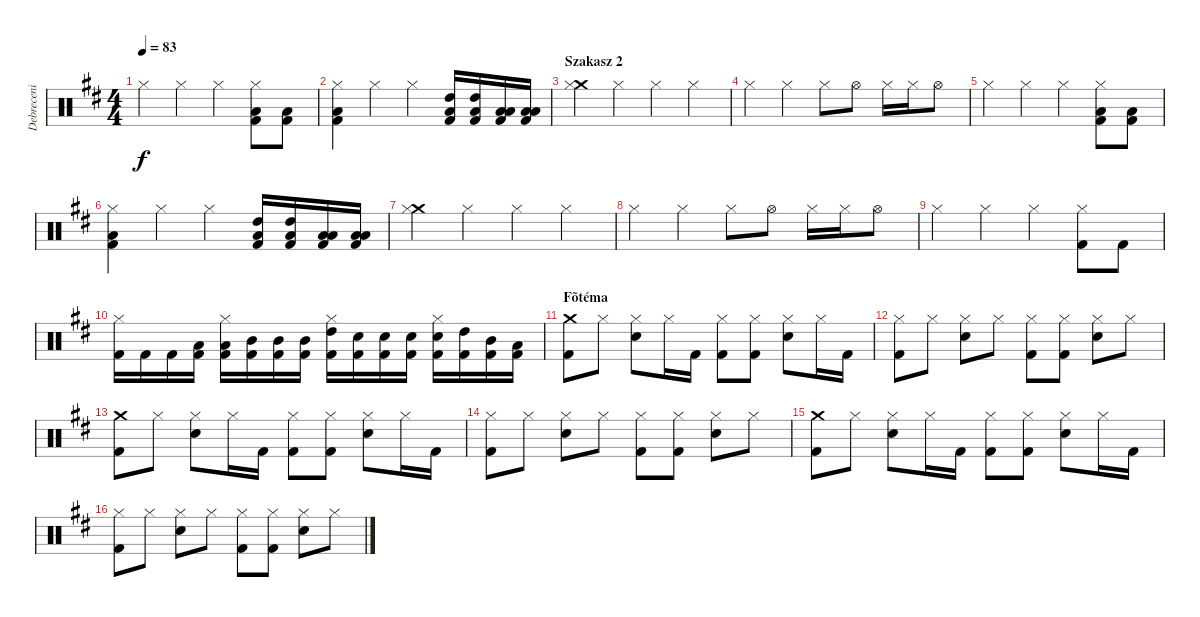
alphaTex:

\track ("Debreceni Ferenc \"Ciki\" Dob" "Debreceni ") {instrument percussion}
\staff {score}
\articulation defaults
\ts (4 4)
\tempo 83
\clef neutral
\ks d "Hi-Hat (closed)".4{dy f} "Hi-Hat (closed)".4 "Hi-Hat (closed)".4
("Hi-Hat (closed)" "Low Tom (hit)" "Kick (hit) 2").8 ("Low Tom (hit)" "Kick (hit) 2").8 |
("Hi-Hat (closed)" "Low Tom (hit)" "Kick (hit) 2").4 "Hi-Hat (closed)".4 "Hi-Hat (closed)".4 ("High Tom (hit)" "Low Floor Tom (hit)" "Kick (hit) 2").16 ("High Tom (hit)" "Low Floor Tom (hit)" "Kick (hit) 2").16 ("Low Tom (hit)" "Low Floor Tom (hit)" "Kick (hit) 2").16 ("Low Tom (hit)" "Low Floor Tom (hit)" "Kick (hit) 2").16 |
\section ("" "Szakasz 2")
("Crash medium (hit)" "Hi-Hat (closed)").4 "Hi-Hat (closed)".4 "Hi-Hat (closed)".4 "Hi-Hat (closed)".4 |
"Hi-Hat (closed)".4 "Hi-Hat (closed)".4 "Hi-Hat (closed)".8 "Hi-Hat (open)".8 "Hi-Hat (closed)".16 "Hi-Hat (closed)".16 "Hi-Hat (open)".8 |
"Hi-Hat (closed)".4 "Hi-Hat (closed)".4 "Hi-Hat (closed)".4 ("Hi-Hat (closed)" "Low Tom (hit)" "Kick (hit) 2").8 ("Low Tom (hit)" "Kick (hit) 2").8 |
("Hi-Hat (closed)" "Low Tom (hit)" "Kick (hit) 2").4 "Hi-Hat (closed)".4 "Hi-Hat (closed)".4 ("High Tom (hit)" "Low Floor Tom (hit)" "Kick (hit) 2").16 ("High Tom (hit)" "Low Floor Tom (hit)" "Kick (hit) 2").16 ("Low Tom (hit)" "Low Floor Tom (hit)" "Kick (hit) 2").16 ("Low Tom (hit)" "Low Floor Tom (hit)" "Kick (hit) 2").16 |
("Crash medium (hit)" "Hi-Hat (closed)").4 "Hi-Hat (closed)".4 "Hi-Hat (closed)".4 "Hi-Hat (closed)".4 |
"Hi-Hat (closed)".4 "Hi-Hat (closed)".4 "Hi-Hat (closed)".8 "Hi-Hat (open)".8 "Hi-Hat (closed)".16 "Hi-Hat (closed)".16 "Hi-Hat (open)".8 |
"Hi-Hat (closed)".4 "Hi-Hat (closed)".4 "Hi-Hat (closed)".4 ("Hi-Hat (closed)" "Kick (hit) 2").8 "Kick (hit) 2".8 |
("Hi-Hat (closed)" "Kick (hit) 2").16 "Kick (hit) 2".16 "Kick (hit) 2".16 ("Low Tom (hit)" "Kick (hit) 2").16 ("Hi-Hat (closed)" "Low Tom (hit)" "Kick (hit) 2").16 ("Mid Tom (hit)" "Kick (hit) 2").16 ("Mid Tom (hit)" "Kick (hit) 2").16 ("Mid Tom (hit)" "Kick (hit) 2").16 ("Hi-Hat (closed)" "High Tom (hit)" "Kick (hit) 2").16 ("Snare (hit) 2" "Kick (hit) 2").16 ("Snare (hit) 2" "Kick (hit) 2").16 ("Snare (hit) 2" "Kick (hit) 2").16 ("Hi-Hat (closed)" "Snare (hit) 2" "Kick (hit) 2").16 ("High Tom (hit)" "Kick (hit) 2").16 ("Mid Tom (hit)" "Kick (hit) 2").16 ("Low Tom (hit)" "Kick (hit) 2").16 |
\section ("" "Fõtéma")
("Crash medium (hit)" "Kick (hit) 2").8 "Hi-Hat (closed)".8 ("Hi-Hat (closed)" "Snare (hit) 2").8 "Hi-Hat (closed)".16 "Kick (hit) 2".16 ("Hi-Hat (closed)" "Kick (hit) 2").8 ("Hi-Hat (closed)" "Kick (hit) 2").8 ("Hi-Hat (closed)" "Snare (hit) 2").8 "Hi-Hat (closed)".16 "Kick (hit) 2".16 |
("Hi-Hat (closed)" "Kick (hit) 2").8 "Hi-Hat (closed)".8 ("Hi-Hat (closed)" "Snare (hit) 2").8 "Hi-Hat (closed)".8 ("Hi-Hat (closed)" "Kick (hit) 2").8 ("Hi-Hat (closed)" "Kick (hit) 2").8 ("Hi-Hat (closed)" "Snare (hit) 2").8 "Hi-Hat (closed)".8 |
("Crash medium (hit)" "Kick (hit) 2").8 "Hi-Hat (closed)".8 ("Hi-Hat (closed)" "Snare (hit) 2").8 "Hi-Hat (closed)".16 "Kick (hit) 2".16 ("Hi-Hat (closed)" "Kick (hit) 2").8 ("Hi-Hat (closed)" "Kick (hit) 2").8 ("Hi-Hat (closed)" "Snare (hit) 2").8 "Hi-Hat (closed)".16 "Kick (hit) 2".16 |
("Hi-Hat (closed)" "Kick (hit) 2").8 "Hi-Hat (closed)".8 ("Hi-Hat (closed)" "Snare (hit) 2").8 "Hi-Hat (closed)".8 ("Hi-Hat (closed)" "Kick (hit) 2").8 ("Hi-Hat (closed)" "Kick (hit) 2").8 ("Hi-Hat (closed)" "Snare (hit) 2").8 "Hi-Hat (closed)".8 |
("Crash medium (hit)" "Kick (hit) 2").8 "Hi-Hat (closed)".8 ("Hi-Hat (closed)" "Snare (hit) 2").8 "Hi-Hat (closed)".16 "Kick (hit) 2".16 ("Hi-Hat (closed)" "Kick (hit) 2").8 ("Hi-Hat (closed)" "Kick (hit) 2").8 ("Hi-Hat (closed)" "Snare (hit) 2").8 "Hi-Hat (closed)".16 "Kick (hit) 2".16 |
("Hi-Hat (closed)" "Kick (hit) 2").8 "Hi-Hat (closed)".8 ("Hi-Hat (closed)" "Snare (hit) 2").8 "Hi-Hat (closed)".8 ("Hi-Hat (closed)" "Kick (hit) 2").8 ("Hi-Hat (closed)" "Kick (hit) 2").8 ("Hi-Hat (closed)" "Snare (hit) 2").8 "Hi-Hat (closed)".8
